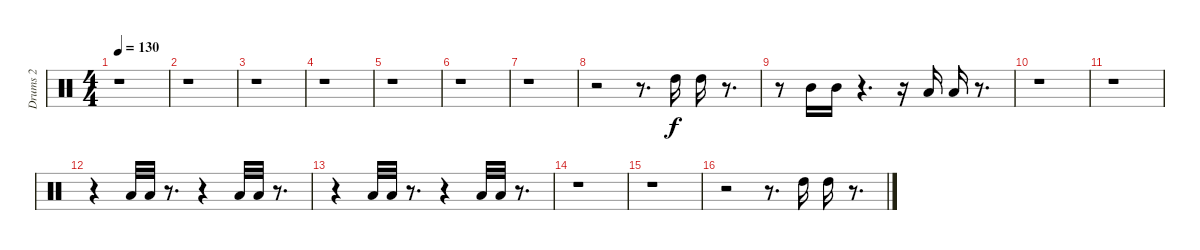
\track ("Drums 2" "Drums 2") {instrument percussion}
\staff {score}
\articulation defaults
\ts (4 4)
\tempo 130
\clef neutral
\ks c
r.1{dy f} |
r.1 |
r.1 |
r.1 |
r.1 |
r.1 |
r.1 |
r.2 r.8{d} "High Tom (hit)".16 "High Tom (hit)".16 r.8{d} |
r.8 "Mid Tom (hit)".16 "Mid Tom (hit)".16 r.4{d} r.16 "Low Tom (hit)".16 "Low Tom (hit)".16 r.8{d} |
r.1 |
r.1 |
r.4 "Low Tom (hit)".32 "Low Tom (hit)".32 r.8{d} r.4 "Low Tom (hit)".32 "Low Tom (hit)".32 r.8{d} |
r.4 "Low Tom (hit)".32 "Low Tom (hit)".32 r.8{d} r.4 "Low Tom (hit)".32 "Low Tom (hit)".32 r.8{d} |
r.1 |
r.1 |
r.2 r.8{d} "High Tom (hit)".16 "High Tom (hit)".16 r.8{d}
